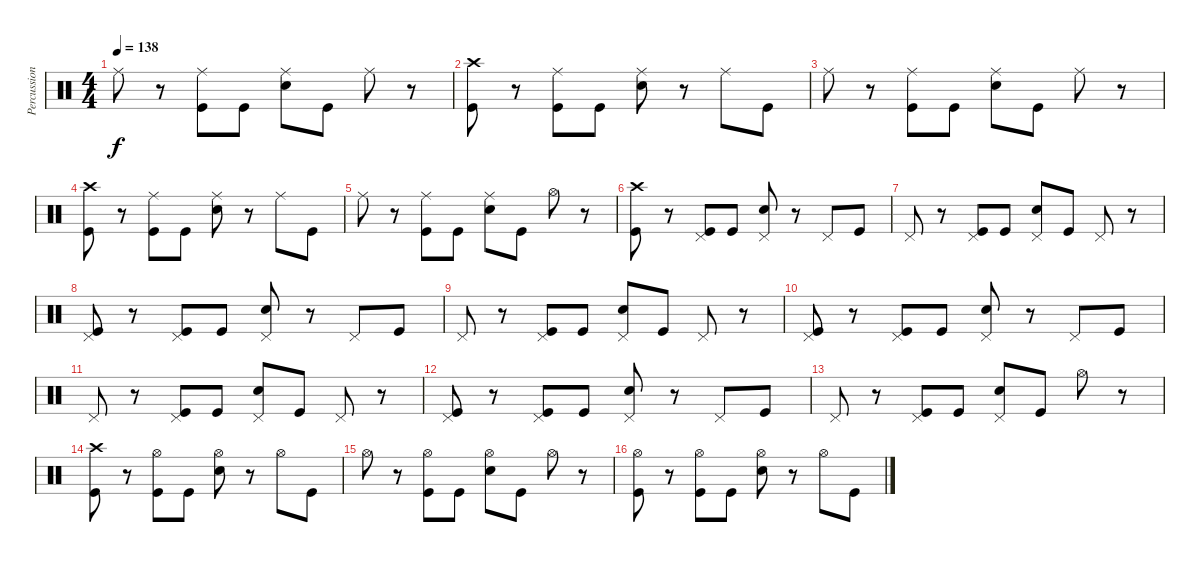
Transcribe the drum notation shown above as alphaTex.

\track ("Percussion" "Percussion") {instrument percussion}
\staff {score}
\articulation defaults
\ts (4 4)
\tempo 138
\clef neutral
\ks c "Ride (middle)".8{dy f}
r.8 ("Ride (middle)" "Kick (hit)").8 "Kick (hit)".8 ("Snare (hit) 2" "Ride (middle)").8 "Kick (hit)".8 "Ride (middle)".8 r.8 |
("Crash high (hit)" "Kick (hit)").8 r.8 ("Ride (middle)" "Kick (hit)").8 "Kick (hit)".8 ("Snare (hit) 2" "Ride (middle)").8 r.8 "Ride (middle)".8 "Kick (hit)".8 |
"Ride (middle)".8 r.8 ("Ride (middle)" "Kick (hit)").8 "Kick (hit)".8 ("Snare (hit) 2" "Ride (middle)").8 "Kick (hit)".8 "Ride (middle)".8 r.8 |
("Crash high (hit)" "Kick (hit)").8 r.8 ("Ride (middle)" "Kick (hit)").8 "Kick (hit)".8 ("Snare (hit) 2" "Ride (middle)").8 r.8 "Ride (middle)".8 "Kick (hit)".8 |
"Ride (middle)".8 r.8 ("Ride (middle)" "Kick (hit)").8 "Kick (hit)".8 ("Snare (hit) 2" "Ride (middle)").8 "Kick (hit)".8 "Hi-Hat (open)".8 r.8 |
("Crash high (hit)" "Kick (hit)").8 r.8 ("Pedal Hi-Hat (hit)" "Kick (hit)").8 "Kick (hit)".8 ("Snare (hit) 2" "Pedal Hi-Hat (hit)").8 r.8 "Pedal Hi-Hat (hit)".8 "Kick (hit)".8 |
"Pedal Hi-Hat (hit)".8 r.8 ("Pedal Hi-Hat (hit)" "Kick (hit)").8 "Kick (hit)".8 ("Snare (hit) 2" "Pedal Hi-Hat (hit)").8 "Kick (hit)".8 "Pedal Hi-Hat (hit)".8 r.8 |
("Pedal Hi-Hat (hit)" "Kick (hit)").8 r.8 ("Pedal Hi-Hat (hit)" "Kick (hit)").8 "Kick (hit)".8 ("Snare (hit) 2" "Pedal Hi-Hat (hit)").8 r.8 "Pedal Hi-Hat (hit)".8 "Kick (hit)".8 |
"Pedal Hi-Hat (hit)".8 r.8 ("Pedal Hi-Hat (hit)" "Kick (hit)").8 "Kick (hit)".8 ("Snare (hit) 2" "Pedal Hi-Hat (hit)").8 "Kick (hit)".8 "Pedal Hi-Hat (hit)".8 r.8 |
("Pedal Hi-Hat (hit)" "Kick (hit)").8 r.8 ("Pedal Hi-Hat (hit)" "Kick (hit)").8 "Kick (hit)".8 ("Snare (hit) 2" "Pedal Hi-Hat (hit)").8 r.8 "Pedal Hi-Hat (hit)".8 "Kick (hit)".8 |
"Pedal Hi-Hat (hit)".8 r.8 ("Pedal Hi-Hat (hit)" "Kick (hit)").8 "Kick (hit)".8 ("Snare (hit) 2" "Pedal Hi-Hat (hit)").8 "Kick (hit)".8 "Pedal Hi-Hat (hit)".8 r.8 |
("Pedal Hi-Hat (hit)" "Kick (hit)").8 r.8 ("Pedal Hi-Hat (hit)" "Kick (hit)").8 "Kick (hit)".8 ("Snare (hit) 2" "Pedal Hi-Hat (hit)").8 r.8 "Pedal Hi-Hat (hit)".8 "Kick (hit)".8 |
"Pedal Hi-Hat (hit)".8 r.8 ("Pedal Hi-Hat (hit)" "Kick (hit)").8 "Kick (hit)".8 ("Snare (hit) 2" "Pedal Hi-Hat (hit)").8 "Kick (hit)".8 "Hi-Hat (open)".8 r.8 |
("Crash high (hit)" "Kick (hit)").8 r.8 ("Hi-Hat (open)" "Kick (hit)").8 "Kick (hit)".8 ("Snare (hit) 2" "Hi-Hat (open)").8 r.8 "Hi-Hat (open)".8 "Kick (hit)".8 |
"Hi-Hat (open)".8 r.8 ("Hi-Hat (open)" "Kick (hit)").8 "Kick (hit)".8 ("Snare (hit) 2" "Hi-Hat (open)").8 "Kick (hit)".8 "Hi-Hat (open)".8 r.8 |
("Hi-Hat (open)" "Kick (hit)").8 r.8 ("Hi-Hat (open)" "Kick (hit)").8 "Kick (hit)".8 ("Snare (hit) 2" "Hi-Hat (open)").8 r.8 "Hi-Hat (open)".8 "Kick (hit)".8
